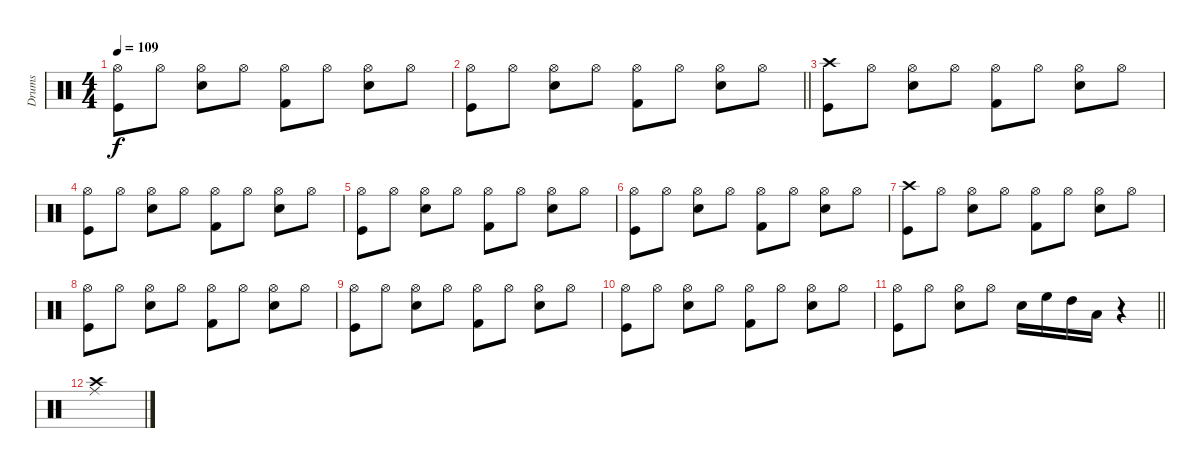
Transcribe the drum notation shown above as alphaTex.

\track ("Drums" "Drums") {instrument percussion}
\staff {score}
\articulation defaults
\ts (4 4)
\tempo 109
\clef neutral
\ks c
("Hi-Hat (open)" "Kick (hit)").8{dy f} "Hi-Hat (open)".8 ("Hi-Hat (open)" "Snare (hit) 2").8 "Hi-Hat (open)".8 ("Hi-Hat (open)" "Kick (hit) 2").8 "Hi-Hat (open)".8 ("Hi-Hat (open)" "Snare (hit) 2").8 "Hi-Hat (open)".8 |
\barLineRight lightlight
("Hi-Hat (open)" "Kick (hit)").8 "Hi-Hat (open)".8 ("Hi-Hat (open)" "Snare (hit) 2").8 "Hi-Hat (open)".8 ("Hi-Hat (open)" "Kick (hit) 2").8 "Hi-Hat (open)".8 ("Hi-Hat (open)" "Snare (hit) 2").8 "Hi-Hat (open)".8 |
("Crash high (hit)" "Kick (hit)").8 "Hi-Hat (open)".8 ("Hi-Hat (open)" "Snare (hit) 2").8 "Hi-Hat (open)".8 ("Hi-Hat (open)" "Kick (hit) 2").8 "Hi-Hat (open)".8 ("Hi-Hat (open)" "Snare (hit) 2").8 "Hi-Hat (open)".8 |
("Hi-Hat (open)" "Kick (hit)").8 "Hi-Hat (open)".8 ("Hi-Hat (open)" "Snare (hit) 2").8 "Hi-Hat (open)".8 ("Hi-Hat (open)" "Kick (hit) 2").8 "Hi-Hat (open)".8 ("Hi-Hat (open)" "Snare (hit) 2").8 "Hi-Hat (open)".8 |
("Hi-Hat (open)" "Kick (hit)").8 "Hi-Hat (open)".8 ("Hi-Hat (open)" "Snare (hit) 2").8 "Hi-Hat (open)".8 ("Hi-Hat (open)" "Kick (hit) 2").8 "Hi-Hat (open)".8 ("Hi-Hat (open)" "Snare (hit) 2").8 "Hi-Hat (open)".8 |
("Hi-Hat (open)" "Kick (hit)").8 "Hi-Hat (open)".8 ("Hi-Hat (open)" "Snare (hit) 2").8 "Hi-Hat (open)".8 ("Hi-Hat (open)" "Kick (hit) 2").8 "Hi-Hat (open)".8 ("Hi-Hat (open)" "Snare (hit) 2").8 "Hi-Hat (open)".8 |
("Crash high (hit)" "Kick (hit)").8 "Hi-Hat (open)".8 ("Hi-Hat (open)" "Snare (hit) 2").8 "Hi-Hat (open)".8 ("Hi-Hat (open)" "Kick (hit) 2").8 "Hi-Hat (open)".8 ("Hi-Hat (open)" "Snare (hit) 2").8 "Hi-Hat (open)".8 |
("Hi-Hat (open)" "Kick (hit)").8 "Hi-Hat (open)".8 ("Hi-Hat (open)" "Snare (hit) 2").8 "Hi-Hat (open)".8 ("Hi-Hat (open)" "Kick (hit) 2").8 "Hi-Hat (open)".8 ("Hi-Hat (open)" "Snare (hit) 2").8 "Hi-Hat (open)".8 |
("Hi-Hat (open)" "Kick (hit)").8 "Hi-Hat (open)".8 ("Hi-Hat (open)" "Snare (hit) 2").8 "Hi-Hat (open)".8 ("Hi-Hat (open)" "Kick (hit) 2").8 "Hi-Hat (open)".8 ("Hi-Hat (open)" "Snare (hit) 2").8 "Hi-Hat (open)".8 |
("Hi-Hat (open)" "Kick (hit)").8 "Hi-Hat (open)".8 ("Hi-Hat (open)" "Snare (hit) 2").8 "Hi-Hat (open)".8 ("Hi-Hat (open)" "Kick (hit) 2").8 "Hi-Hat (open)".8 ("Hi-Hat (open)" "Snare (hit) 2").8 "Hi-Hat (open)".8 |
\barLineRight lightlight
("Kick (hit)" "Hi-Hat (open)").8 "Hi-Hat (open)".8 ("Snare (hit) 2" "Hi-Hat (open)").8 "Hi-Hat (open)".8 "Snare (hit) 2".16 "High Floor Tom (hit)".16 "High Tom (hit)".16 "Low Floor Tom (hit)".16 r.4 |
("Crash high (hit)" "Ride (middle)").1
